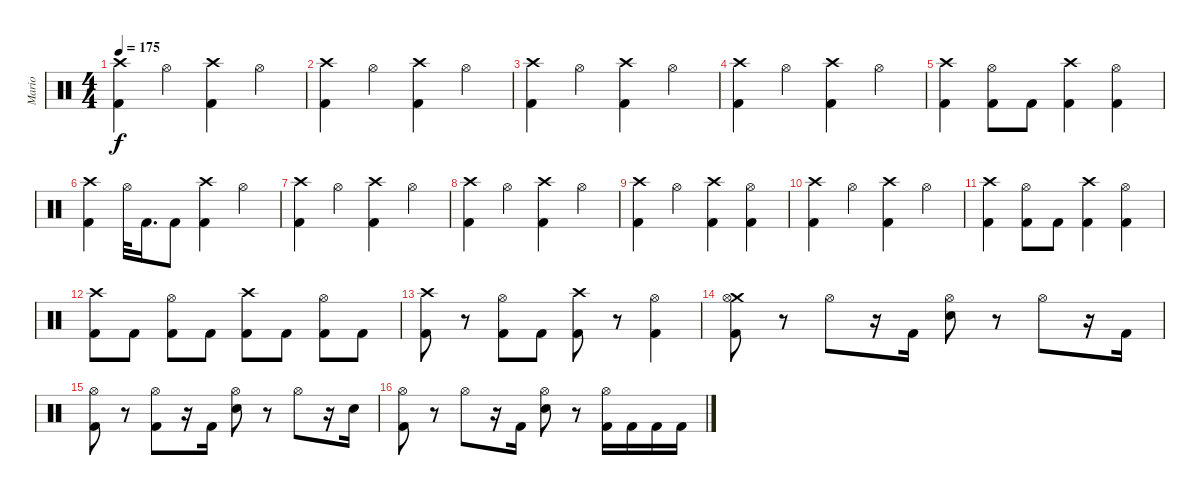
\track ("Mario" "Mario") {instrument percussion}
\staff {score}
\articulation defaults
\ts (4 4)
\tempo 175
\clef neutral
\ks c
("Crash high (hit)" "Kick (hit) 2").4{dy f} "Hi-Hat (open)".4 ("Crash high (hit)" "Kick (hit) 2").4 "Hi-Hat (open)".4 |
("Crash high (hit)" "Kick (hit) 2").4 "Hi-Hat (open)".4 ("Crash high (hit)" "Kick (hit) 2").4 "Hi-Hat (open)".4 |
("Crash high (hit)" "Kick (hit) 2").4 "Hi-Hat (open)".4 ("Crash high (hit)" "Kick (hit) 2").4 "Hi-Hat (open)".4 |
("Crash high (hit)" "Kick (hit) 2").4 "Hi-Hat (open)".4 ("Crash high (hit)" "Kick (hit) 2").4 "Hi-Hat (open)".4 |
("Crash high (hit)" "Kick (hit) 2").4 ("Hi-Hat (open)" "Kick (hit) 2").8 "Kick (hit) 2".8 ("Crash high (hit)" "Kick (hit) 2").4 ("Hi-Hat (open)" "Kick (hit) 2").4 |
("Crash high (hit)" "Kick (hit) 2").4 "Hi-Hat (open)".32 "Kick (hit) 2".16{d} "Kick (hit) 2".8 ("Crash high (hit)" "Kick (hit) 2").4 "Hi-Hat (open)".4 |
("Crash high (hit)" "Kick (hit) 2").4 "Hi-Hat (open)".4 ("Crash high (hit)" "Kick (hit) 2").4 "Hi-Hat (open)".4 |
("Crash high (hit)" "Kick (hit) 2").4 "Hi-Hat (open)".4 ("Crash high (hit)" "Kick (hit) 2").4 "Hi-Hat (open)".4 |
("Crash high (hit)" "Kick (hit) 2").4 "Hi-Hat (open)".4 ("Crash high (hit)" "Kick (hit) 2").4 ("Hi-Hat (open)" "Kick (hit) 2").4 |
("Crash high (hit)" "Kick (hit) 2").4 "Hi-Hat (open)".4 ("Crash high (hit)" "Kick (hit) 2").4 "Hi-Hat (open)".4 |
("Crash high (hit)" "Kick (hit) 2").4 ("Hi-Hat (open)" "Kick (hit) 2").8 "Kick (hit) 2".8 ("Crash high (hit)" "Kick (hit) 2").4 ("Hi-Hat (open)" "Kick (hit) 2").4 |
("Crash high (hit)" "Kick (hit) 2").8 "Kick (hit) 2".8 ("Hi-Hat (open)" "Kick (hit) 2").8 "Kick (hit) 2".8 ("Crash high (hit)" "Kick (hit) 2").8 "Kick (hit) 2".8 ("Hi-Hat (open)" "Kick (hit) 2").8 "Kick (hit) 2".8 |
("Crash high (hit)" "Kick (hit) 2").8 r.8 ("Hi-Hat (open)" "Kick (hit) 2").8 "Kick (hit) 2".8 ("Crash high (hit)" "Kick (hit) 2").8 r.8 ("Hi-Hat (open)" "Kick (hit) 2").4 |
("Crash medium (hit)" "Hi-Hat (open)" "Kick (hit) 2").8 r.8 "Hi-Hat (open)".8 r.16 "Kick (hit) 2".16 ("Hi-Hat (open)" "Electric Snare (hit)").8 r.8 "Hi-Hat (open)".8 r.16 "Kick (hit) 2".16 |
("Hi-Hat (open)" "Kick (hit) 2").8 r.8 ("Hi-Hat (open)" "Kick (hit) 2").8 r.16 "Kick (hit) 2".16 ("Hi-Hat (open)" "Electric Snare (hit)").8 r.8 "Hi-Hat (open)".8 r.16 "Electric Snare (hit)".16 |
("Hi-Hat (open)" "Kick (hit) 2").8 r.8 "Hi-Hat (open)".8 r.16 "Kick (hit) 2".16 ("Hi-Hat (open)" "Electric Snare (hit)").8 r.8 ("Hi-Hat (open)" "Kick (hit) 2").16 "Kick (hit) 2".16 "Kick (hit) 2".16 "Kick (hit) 2".16
